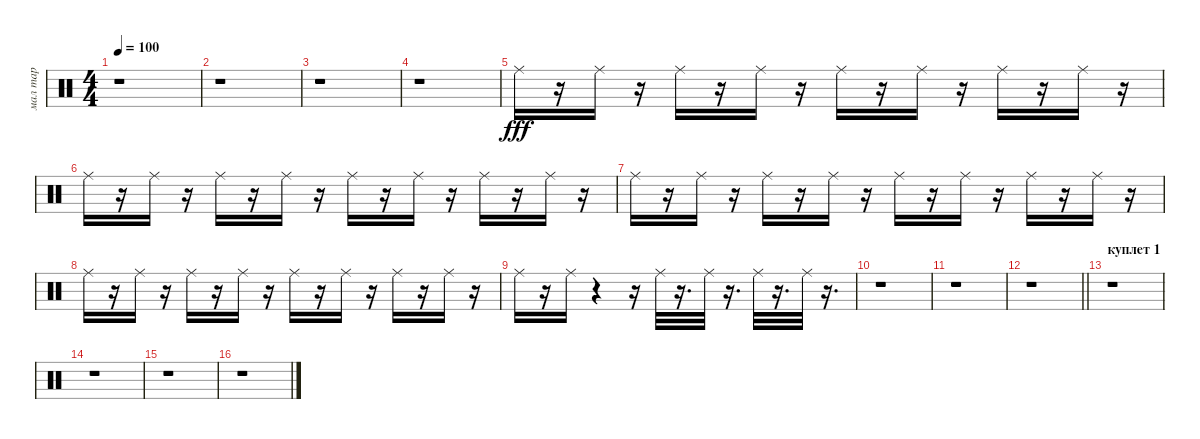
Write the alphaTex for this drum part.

\track ("мал тар" "мал тар") {instrument percussion}
\staff {score}
\articulation defaults
\ts (4 4)
\tempo 100
\clef neutral
\ks c
r.1{dy fff} |
r.1 |
r.1 |
r.1 |
"Ride (middle)".16 r.16 "Ride (middle)".16 r.16 "Ride (middle)".16 r.16 "Ride (middle)".16 r.16 "Ride (middle)".16 r.16 "Ride (middle)".16 r.16 "Ride (middle)".16 r.16 "Ride (middle)".16 r.16 |
"Ride (middle)".16 r.16 "Ride (middle)".16 r.16 "Ride (middle)".16 r.16 "Ride (middle)".16 r.16 "Ride (middle)".16 r.16 "Ride (middle)".16 r.16 "Ride (middle)".16 r.16 "Ride (middle)".16 r.16 |
"Ride (middle)".16 r.16 "Ride (middle)".16 r.16 "Ride (middle)".16 r.16 "Ride (middle)".16 r.16 "Ride (middle)".16 r.16 "Ride (middle)".16 r.16 "Ride (middle)".16 r.16 "Ride (middle)".16 r.16 |
"Ride (middle)".16 r.16 "Ride (middle)".16 r.16 "Ride (middle)".16 r.16 "Ride (middle)".16 r.16 "Ride (middle)".16 r.16 "Ride (middle)".16 r.16 "Ride (middle)".16 r.16 "Ride (middle)".16 r.16 |
"Ride (middle)".16 r.16 "Ride (middle)".16 r.4 r.16 "Ride (middle)".32 r.16{d} "Ride (middle)".32 r.16{d} "Ride (middle)".32 r.16{d} "Ride (middle)".32 r.16{d} |
r.1 |
r.1 |
\barLineRight lightlight
r.1 |
\section ("" "куплет 1")
r.1 |
r.1 |
r.1 |
r.1
